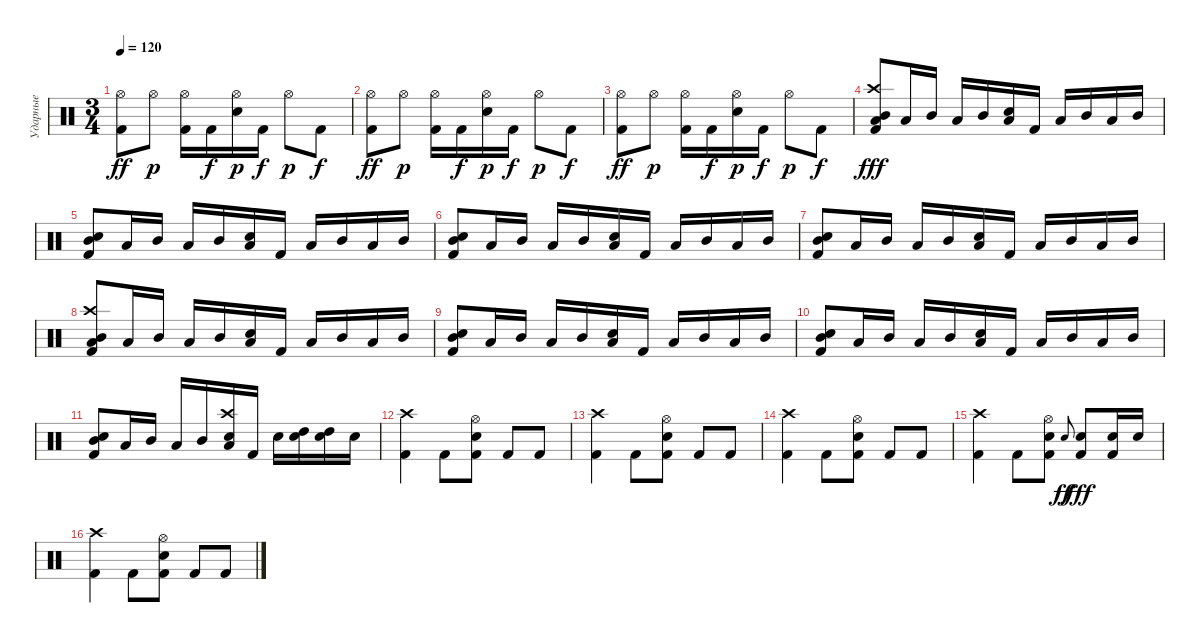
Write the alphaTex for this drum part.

\track ("Ударные" "Ударные") {instrument percussion}
\staff {score}
\articulation defaults
\ts (3 4)
\tempo 120
\clef neutral
\ks c
("Hi-Hat (open)" "Kick (hit) 2").8{dy ff} "Hi-Hat (open)".8{dy p} ("Hi-Hat (open)" "Kick (hit) 2").16 "Kick (hit) 2".16{dy f} ("Hi-Hat (open)" "Electric Snare (hit)").16{dy p} "Kick (hit) 2".16{dy f} "Hi-Hat (open)".8{dy p} "Kick (hit) 2".8{dy f} |
("Hi-Hat (open)" "Kick (hit) 2").8{dy ff} "Hi-Hat (open)".8{dy p} ("Hi-Hat (open)" "Kick (hit) 2").16 "Kick (hit) 2".16{dy f} ("Hi-Hat (open)" "Electric Snare (hit)").16{dy p} "Kick (hit) 2".16{dy f} "Hi-Hat (open)".8{dy p} "Kick (hit) 2".8{dy f} |
("Hi-Hat (open)" "Kick (hit) 2").8{dy ff} "Hi-Hat (open)".8{dy p} ("Hi-Hat (open)" "Kick (hit) 2").16 "Kick (hit) 2".16{dy f} ("Hi-Hat (open)" "Electric Snare (hit)").16{dy p} "Kick (hit) 2".16{dy f} "Hi-Hat (open)".8{dy p} "Kick (hit) 2".8{dy f} |
("Crash high (hit)" "Mid Tom (hit)" "Low Floor Tom (hit)" "Kick (hit) 2").8{dy fff} "Low Tom (hit)".16 "Mid Tom (hit)".16 "Low Tom (hit)".16 "Mid Tom (hit)".16 ("Low Tom (hit)" "Electric Snare (hit)").16 "Kick (hit) 2".16 "Low Tom (hit)".16 "Mid Tom (hit)".16 "Low Tom (hit)".16 "Mid Tom (hit)".16 |
("Mid Tom (hit)" "Electric Snare (hit)" "Kick (hit) 2").8 "Low Tom (hit)".16 "Mid Tom (hit)".16 "Low Tom (hit)".16 "Mid Tom (hit)".16 ("Low Tom (hit)" "Electric Snare (hit)").16 "Kick (hit) 2".16 "Low Tom (hit)".16 "Mid Tom (hit)".16 "Low Tom (hit)".16 "Mid Tom (hit)".16 |
("Mid Tom (hit)" "Electric Snare (hit)" "Kick (hit) 2").8 "Low Tom (hit)".16 "Mid Tom (hit)".16 "Low Tom (hit)".16 "Mid Tom (hit)".16 ("Low Tom (hit)" "Electric Snare (hit)").16 "Kick (hit) 2".16 "Low Tom (hit)".16 "Mid Tom (hit)".16 "Low Tom (hit)".16 "Mid Tom (hit)".16 |
("Mid Tom (hit)" "Electric Snare (hit)" "Kick (hit) 2").8 "Low Tom (hit)".16 "Mid Tom (hit)".16 "Low Tom (hit)".16 "Mid Tom (hit)".16 ("Low Tom (hit)" "Electric Snare (hit)").16 "Kick (hit) 2".16 "Low Tom (hit)".16 "Mid Tom (hit)".16 "Low Tom (hit)".16 "Mid Tom (hit)".16 |
("Crash high (hit)" "Mid Tom (hit)" "Low Floor Tom (hit)" "Kick (hit) 2").8 "Low Tom (hit)".16 "Mid Tom (hit)".16 "Low Tom (hit)".16 "Mid Tom (hit)".16 ("Low Tom (hit)" "Electric Snare (hit)").16 "Kick (hit) 2".16 "Low Tom (hit)".16 "Mid Tom (hit)".16 "Low Tom (hit)".16 "Mid Tom (hit)".16 |
("Mid Tom (hit)" "Electric Snare (hit)" "Kick (hit) 2").8 "Low Tom (hit)".16 "Mid Tom (hit)".16 "Low Tom (hit)".16 "Mid Tom (hit)".16 ("Low Tom (hit)" "Electric Snare (hit)").16 "Kick (hit) 2".16 "Low Tom (hit)".16 "Mid Tom (hit)".16 "Low Tom (hit)".16 "Mid Tom (hit)".16 |
("Mid Tom (hit)" "Electric Snare (hit)" "Kick (hit) 2").8 "Low Tom (hit)".16 "Mid Tom (hit)".16 "Low Tom (hit)".16 "Mid Tom (hit)".16 ("Low Tom (hit)" "Electric Snare (hit)").16 "Kick (hit) 2".16 "Low Tom (hit)".16 "Mid Tom (hit)".16 "Low Tom (hit)".16 "Mid Tom (hit)".16 |
("Mid Tom (hit)" "Electric Snare (hit)" "Kick (hit) 2").8 "Low Tom (hit)".16 "Mid Tom (hit)".16 "Low Tom (hit)".16 "Mid Tom (hit)".16 ("Crash high (hit)" "Low Tom (hit)" "Electric Snare (hit)").16 "Kick (hit) 2".16 "Electric Snare (hit)".16 ("Electric Snare (hit)" "High Tom (hit)").16 ("Electric Snare (hit)" "High Tom (hit)").16 "Electric Snare (hit)".16 |
("Crash high (hit)" "Kick (hit) 2").4 "Kick (hit) 2".8 ("Kick (hit) 2" "Electric Snare (hit)" "Hi-Hat (open)").8 "Kick (hit) 2".8 "Kick (hit) 2".8 |
("Crash high (hit)" "Kick (hit) 2").4 "Kick (hit) 2".8 ("Kick (hit) 2" "Electric Snare (hit)" "Hi-Hat (open)").8 "Kick (hit) 2".8 "Kick (hit) 2".8 |
("Crash high (hit)" "Kick (hit) 2").4 "Kick (hit) 2".8 ("Kick (hit) 2" "Electric Snare (hit)" "Hi-Hat (open)").8 "Kick (hit) 2".8 "Kick (hit) 2".8 |
("Crash high (hit)" "Kick (hit) 2").4 "Kick (hit) 2".8 ("Kick (hit) 2" "Electric Snare (hit)" "Hi-Hat (open)").8 "Electric Snare (hit)".8{gr onbeat dy ff} ("Kick (hit) 2" "Electric Snare (hit)").8{dy fff} ("Kick (hit) 2" "Electric Snare (hit)").16 "Electric Snare (hit)".16 |
("Crash high (hit)" "Kick (hit) 2").4 "Kick (hit) 2".8 ("Kick (hit) 2" "Electric Snare (hit)" "Hi-Hat (open)").8 "Kick (hit) 2".8 "Kick (hit) 2".8
